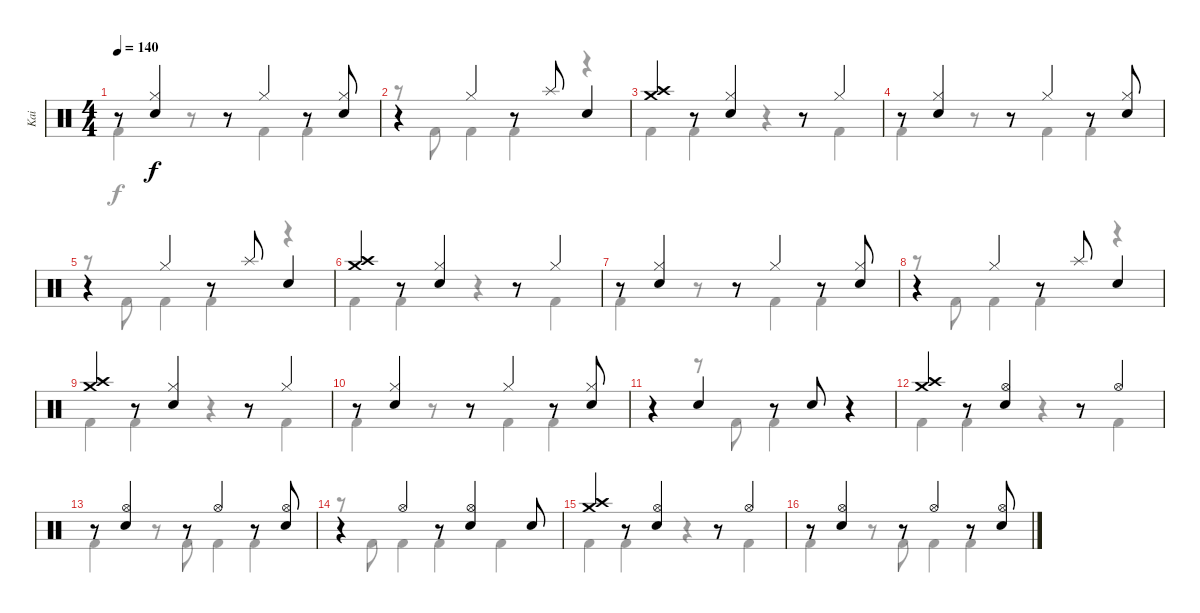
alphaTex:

\track ("Kai" "Kai") {instrument percussion}
\staff {score}
\articulation defaults
\voice
\ts (4 4)
\tempo 140
\clef neutral
\ks c
r.8{dy f} ("Hi-Hat (closed)" "Snare (hit) 2").4 r.8 "Hi-Hat (closed)".4 r.8 ("Hi-Hat (closed)" "Snare (hit) 2").8 |
r.4 "Hi-Hat (closed)".4 r.8 "Splash (hit)".8 "Snare (hit) 2".4 |
("Crash medium (hit)" "Crash high (hit)").4 r.8 ("Hi-Hat (closed)" "Snare (hit) 2").4 r.8 "Hi-Hat (closed)".4 |
r.8 ("Hi-Hat (closed)" "Snare (hit) 2").4 r.8 "Hi-Hat (closed)".4 r.8 ("Hi-Hat (closed)" "Snare (hit) 2").8 |
r.4 "Hi-Hat (closed)".4 r.8 "Splash (hit)".8 "Snare (hit) 2".4 |
("Crash medium (hit)" "Crash high (hit)").4 r.8 ("Hi-Hat (closed)" "Snare (hit) 2").4 r.8 "Hi-Hat (closed)".4 |
r.8 ("Hi-Hat (closed)" "Snare (hit) 2").4 r.8 "Hi-Hat (closed)".4 r.8 ("Hi-Hat (closed)" "Snare (hit) 2").8 |
r.4 "Hi-Hat (closed)".4 r.8 "Splash (hit)".8 "Snare (hit) 2".4 |
("Crash medium (hit)" "Crash high (hit)").4 r.8 ("Hi-Hat (closed)" "Snare (hit) 2").4 r.8 "Hi-Hat (closed)".4 |
r.8 ("Hi-Hat (closed)" "Snare (hit) 2").4 r.8 "Hi-Hat (closed)".4 r.8 ("Hi-Hat (closed)" "Snare (hit) 2").8 |
r.4 "Snare (hit) 2".4 r.8 "Snare (hit) 2".8 r.4 |
("Crash medium (hit)" "Crash high (hit)").4 r.8 ("Hi-Hat (open)" "Snare (hit) 2").4 r.8 "Hi-Hat (open)".4 |
r.8 ("Hi-Hat (open)" "Snare (hit) 2").4 r.8 "Hi-Hat (open)".4 r.8 ("Hi-Hat (open)" "Snare (hit) 2").8 |
r.4 "Hi-Hat (open)".4 r.8 ("Hi-Hat (open)" "Snare (hit) 2").4 "Snare (hit) 2".8 |
("Crash medium (hit)" "Crash high (hit)").4 r.8 ("Hi-Hat (open)" "Snare (hit) 2").4 r.8 "Hi-Hat (open)".4 |
r.8 ("Hi-Hat (open)" "Snare (hit) 2").4 r.8 "Hi-Hat (open)".4 r.8 ("Hi-Hat (open)" "Snare (hit) 2").8
\voice
\clef neutral
\ottava regular
\simile none
\ks c "Kick (hit) 2".4{dy f}
r.8 r.8 "Kick (hit) 2".4 "Kick (hit) 2".4 |
r.8 "Kick (hit) 2".8 "Kick (hit) 2".4 "Kick (hit) 2".4 r.4 |
"Kick (hit) 2".4 "Kick (hit) 2".4 r.4 "Kick (hit) 2".4 |
"Kick (hit) 2".4 r.8 r.8 "Kick (hit) 2".4 "Kick (hit) 2".4 |
r.8 "Kick (hit) 2".8 "Kick (hit) 2".4 "Kick (hit) 2".4 r.4 |
"Kick (hit) 2".4 "Kick (hit) 2".4 r.4 "Kick (hit) 2".4 |
"Kick (hit) 2".4 r.8 r.8 "Kick (hit) 2".4 "Kick (hit) 2".4 |
r.8 "Kick (hit) 2".8 "Kick (hit) 2".4 "Kick (hit) 2".4 r.4 |
"Kick (hit) 2".4 "Kick (hit) 2".4 r.4 "Kick (hit) 2".4 |
"Kick (hit) 2".4 r.8 r.8 "Kick (hit) 2".4 "Kick (hit) 2".4 |
r.4 r.8 "Kick (hit) 2".8 "Kick (hit) 2".4 r.4 |
"Kick (hit) 2".4 "Kick (hit) 2".4 r.4 "Kick (hit) 2".4 |
"Kick (hit) 2".4 r.8 "Kick (hit) 2".8 "Kick (hit) 2".4 "Kick (hit) 2".4 |
r.8 "Kick (hit) 2".8 "Kick (hit) 2".4 "Kick (hit) 2".4 "Kick (hit) 2".4 |
"Kick (hit) 2".4 "Kick (hit) 2".4 r.4 "Kick (hit) 2".4 |
"Kick (hit) 2".4 r.8 "Kick (hit) 2".8 "Kick (hit) 2".4 "Kick (hit) 2".4
